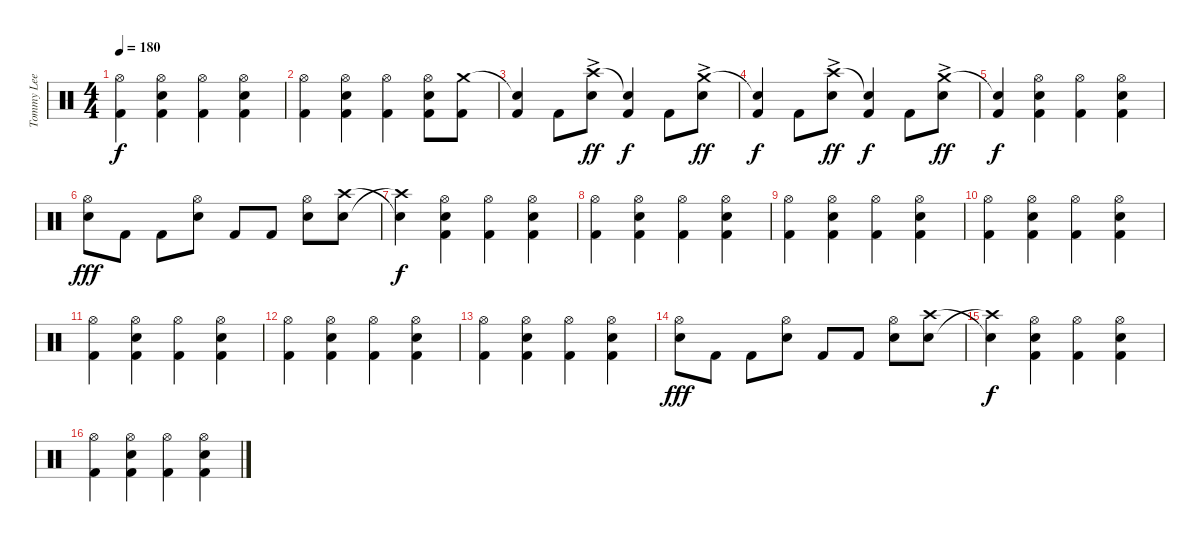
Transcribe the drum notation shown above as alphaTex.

\track ("Tommy Lee" "Tommy Lee") {instrument percussion}
\staff {score}
\articulation defaults
\ts (4 4)
\tempo 180
\clef neutral
\ks c
("Hi-Hat (open)" "Kick (hit) 2").4{dy f} ("Hi-Hat (open)" "Electric Snare (hit)" "Kick (hit) 2").4 ("Hi-Hat (open)" "Kick (hit) 2").4 ("Hi-Hat (open)" "Electric Snare (hit)" "Kick (hit) 2").4 |
("Hi-Hat (open)" "Kick (hit) 2").4 ("Hi-Hat (open)" "Electric Snare (hit)" "Kick (hit) 2").4 ("Hi-Hat (open)" "Kick (hit) 2").4 ("Hi-Hat (open)" "Electric Snare (hit)" "Kick (hit) 2").8 ("Crash medium (hit)" "Kick (hit) 2").8 |
("Snare (hit)"{t} "Kick (hit) 2").4 "Kick (hit) 2".8 ("Crash high (hit)"{ac} "Electric Snare (hit)").8{dy ff} ("Snare (hit)"{t} "Kick (hit) 2").4{dy f} "Kick (hit) 2".8 ("Crash medium (hit)"{ac} "Electric Snare (hit)").8{dy ff} |
("Snare (hit)"{t} "Kick (hit) 2").4{dy f} "Kick (hit) 2".8 ("Crash high (hit)"{ac} "Electric Snare (hit)").8{dy ff} ("Snare (hit)"{t} "Kick (hit) 2").4{dy f} "Kick (hit) 2".8 ("Crash medium (hit)"{ac} "Electric Snare (hit)").8{dy ff} |
("Snare (hit)"{t} "Kick (hit) 2").4{dy f} ("Hi-Hat (open)" "Electric Snare (hit)" "Kick (hit) 2").4 ("Hi-Hat (open)" "Kick (hit) 2").4 ("Hi-Hat (open)" "Electric Snare (hit)" "Kick (hit) 2").4 |
("Hi-Hat (open)" "Electric Snare (hit)").8{dy fff} "Kick (hit) 2".8 "Kick (hit) 2".8 ("Hi-Hat (open)" "Electric Snare (hit)").8 "Kick (hit) 2".8 "Kick (hit) 2".8 ("Hi-Hat (open)" "Electric Snare (hit)").8 ("Crash high (hit)" "Electric Snare (hit)").8 |
("Snare (hit)"{t} "Crash high (hit)"{t}).4{dy f} ("Hi-Hat (open)" "Electric Snare (hit)" "Kick (hit) 2").4 ("Hi-Hat (open)" "Kick (hit) 2").4 ("Hi-Hat (open)" "Electric Snare (hit)" "Kick (hit) 2").4 |
("Hi-Hat (open)" "Kick (hit) 2").4 ("Hi-Hat (open)" "Electric Snare (hit)" "Kick (hit) 2").4 ("Hi-Hat (open)" "Kick (hit) 2").4 ("Hi-Hat (open)" "Electric Snare (hit)" "Kick (hit) 2").4 |
("Hi-Hat (open)" "Kick (hit) 2").4 ("Hi-Hat (open)" "Electric Snare (hit)" "Kick (hit) 2").4 ("Hi-Hat (open)" "Kick (hit) 2").4 ("Hi-Hat (open)" "Electric Snare (hit)" "Kick (hit) 2").4 |
("Hi-Hat (open)" "Kick (hit) 2").4 ("Hi-Hat (open)" "Electric Snare (hit)" "Kick (hit) 2").4 ("Hi-Hat (open)" "Kick (hit) 2").4 ("Hi-Hat (open)" "Electric Snare (hit)" "Kick (hit) 2").4 |
("Hi-Hat (open)" "Kick (hit) 2").4 ("Hi-Hat (open)" "Electric Snare (hit)" "Kick (hit) 2").4 ("Hi-Hat (open)" "Kick (hit) 2").4 ("Hi-Hat (open)" "Electric Snare (hit)" "Kick (hit) 2").4 |
("Hi-Hat (open)" "Kick (hit) 2").4 ("Hi-Hat (open)" "Electric Snare (hit)" "Kick (hit) 2").4 ("Hi-Hat (open)" "Kick (hit) 2").4 ("Hi-Hat (open)" "Electric Snare (hit)" "Kick (hit) 2").4 |
("Hi-Hat (open)" "Kick (hit) 2").4 ("Hi-Hat (open)" "Electric Snare (hit)" "Kick (hit) 2").4 ("Hi-Hat (open)" "Kick (hit) 2").4 ("Hi-Hat (open)" "Electric Snare (hit)" "Kick (hit) 2").4 |
("Hi-Hat (open)" "Electric Snare (hit)").8{dy fff} "Kick (hit) 2".8 "Kick (hit) 2".8 ("Hi-Hat (open)" "Electric Snare (hit)").8 "Kick (hit) 2".8 "Kick (hit) 2".8 ("Hi-Hat (open)" "Electric Snare (hit)").8 ("Crash high (hit)" "Electric Snare (hit)").8 |
("Snare (hit)"{t} "Crash high (hit)"{t}).4{dy f} ("Hi-Hat (open)" "Electric Snare (hit)" "Kick (hit) 2").4 ("Hi-Hat (open)" "Kick (hit) 2").4 ("Hi-Hat (open)" "Electric Snare (hit)" "Kick (hit) 2").4 |
("Hi-Hat (open)" "Kick (hit) 2").4 ("Hi-Hat (open)" "Electric Snare (hit)" "Kick (hit) 2").4 ("Hi-Hat (open)" "Kick (hit) 2").4 ("Hi-Hat (open)" "Electric Snare (hit)" "Kick (hit) 2").4
